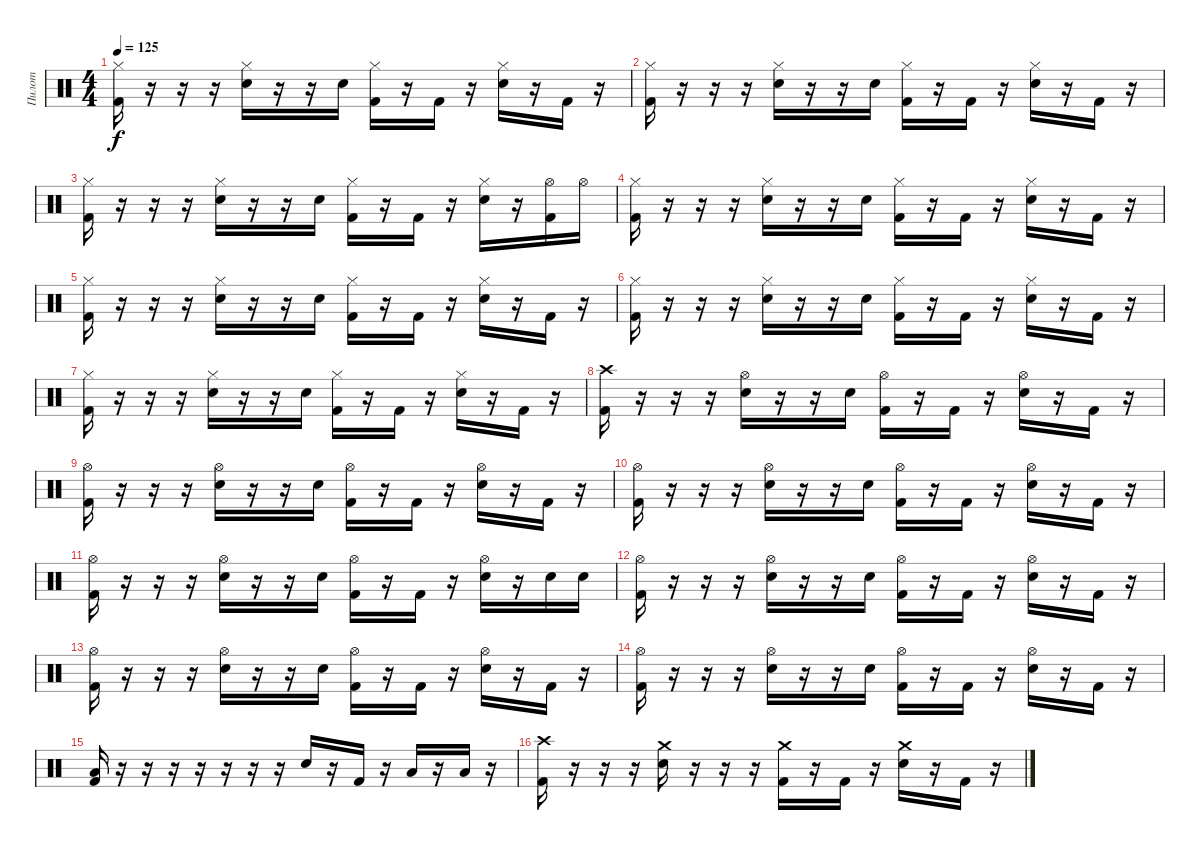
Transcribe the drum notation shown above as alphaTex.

\track ("Пилот" "Пилот") {instrument percussion}
\staff {score}
\articulation defaults
\ts (4 4)
\tempo 125
\clef neutral
\ks c
("Hi-Hat (closed)" "Kick (hit) 2").16{dy f} r.16 r.16 r.16 ("Hi-Hat (closed)" "Electric Snare (hit)").16 r.16 r.16 "Electric Snare (hit)".16 ("Hi-Hat (closed)" "Kick (hit) 2").16 r.16 "Kick (hit) 2".16 r.16 ("Hi-Hat (closed)" "Electric Snare (hit)").16 r.16 "Kick (hit) 2".16 r.16 |
("Hi-Hat (closed)" "Kick (hit) 2").16 r.16 r.16 r.16 ("Hi-Hat (closed)" "Electric Snare (hit)").16 r.16 r.16 "Electric Snare (hit)".16 ("Hi-Hat (closed)" "Kick (hit) 2").16 r.16 "Kick (hit) 2".16 r.16 ("Hi-Hat (closed)" "Electric Snare (hit)").16 r.16 "Kick (hit) 2".16 r.16 |
("Hi-Hat (closed)" "Kick (hit) 2").16 r.16 r.16 r.16 ("Hi-Hat (closed)" "Electric Snare (hit)").16 r.16 r.16 "Electric Snare (hit)".16 ("Hi-Hat (closed)" "Kick (hit) 2").16 r.16 "Kick (hit) 2".16 r.16 ("Hi-Hat (closed)" "Electric Snare (hit)").16 r.16 ("Hi-Hat (open)" "Kick (hit) 2").16 "Hi-Hat (open)".16 |
("Hi-Hat (closed)" "Kick (hit) 2").16 r.16 r.16 r.16 ("Hi-Hat (closed)" "Electric Snare (hit)").16 r.16 r.16 "Electric Snare (hit)".16 ("Hi-Hat (closed)" "Kick (hit) 2").16 r.16 "Kick (hit) 2".16 r.16 ("Hi-Hat (closed)" "Electric Snare (hit)").16 r.16 "Kick (hit) 2".16 r.16 |
("Hi-Hat (closed)" "Kick (hit) 2").16 r.16 r.16 r.16 ("Hi-Hat (closed)" "Electric Snare (hit)").16 r.16 r.16 "Electric Snare (hit)".16 ("Hi-Hat (closed)" "Kick (hit) 2").16 r.16 "Kick (hit) 2".16 r.16 ("Hi-Hat (closed)" "Electric Snare (hit)").16 r.16 "Kick (hit) 2".16 r.16 |
("Hi-Hat (closed)" "Kick (hit) 2").16 r.16 r.16 r.16 ("Hi-Hat (closed)" "Electric Snare (hit)").16 r.16 r.16 "Electric Snare (hit)".16 ("Hi-Hat (closed)" "Kick (hit) 2").16 r.16 "Kick (hit) 2".16 r.16 ("Hi-Hat (closed)" "Electric Snare (hit)").16 r.16 "Kick (hit) 2".16 r.16 |
("Hi-Hat (closed)" "Kick (hit) 2").16 r.16 r.16 r.16 ("Hi-Hat (closed)" "Electric Snare (hit)").16 r.16 r.16 "Electric Snare (hit)".16 ("Hi-Hat (closed)" "Kick (hit) 2").16 r.16 "Kick (hit) 2".16 r.16 ("Hi-Hat (closed)" "Electric Snare (hit)").16 r.16 "Kick (hit) 2".16 r.16 |
("Crash high (hit)" "Kick (hit) 2").16 r.16 r.16 r.16 ("Hi-Hat (open)" "Electric Snare (hit)").16 r.16 r.16 "Electric Snare (hit)".16 ("Hi-Hat (open)" "Kick (hit) 2").16 r.16 "Kick (hit) 2".16 r.16 ("Hi-Hat (open)" "Electric Snare (hit)").16 r.16 "Kick (hit) 2".16 r.16 |
("Hi-Hat (open)" "Kick (hit) 2").16 r.16 r.16 r.16 ("Hi-Hat (open)" "Electric Snare (hit)").16 r.16 r.16 "Electric Snare (hit)".16 ("Hi-Hat (open)" "Kick (hit) 2").16 r.16 "Kick (hit) 2".16 r.16 ("Hi-Hat (open)" "Electric Snare (hit)").16 r.16 "Kick (hit) 2".16 r.16 |
("Hi-Hat (open)" "Kick (hit) 2").16 r.16 r.16 r.16 ("Hi-Hat (open)" "Electric Snare (hit)").16 r.16 r.16 "Electric Snare (hit)".16 ("Hi-Hat (open)" "Kick (hit) 2").16 r.16 "Kick (hit) 2".16 r.16 ("Hi-Hat (open)" "Electric Snare (hit)").16 r.16 "Kick (hit) 2".16 r.16 |
("Hi-Hat (open)" "Kick (hit) 2").16 r.16 r.16 r.16 ("Hi-Hat (open)" "Electric Snare (hit)").16 r.16 r.16 "Electric Snare (hit)".16 ("Hi-Hat (open)" "Kick (hit) 2").16 r.16 "Kick (hit) 2".16 r.16 ("Hi-Hat (open)" "Electric Snare (hit)").16 r.16 "Electric Snare (hit)".16 "Electric Snare (hit)".16 |
("Hi-Hat (open)" "Kick (hit) 2").16 r.16 r.16 r.16 ("Hi-Hat (open)" "Electric Snare (hit)").16 r.16 r.16 "Electric Snare (hit)".16 ("Hi-Hat (open)" "Kick (hit) 2").16 r.16 "Kick (hit) 2".16 r.16 ("Hi-Hat (open)" "Electric Snare (hit)").16 r.16 "Kick (hit) 2".16 r.16 |
("Hi-Hat (open)" "Kick (hit) 2").16 r.16 r.16 r.16 ("Hi-Hat (open)" "Electric Snare (hit)").16 r.16 r.16 "Electric Snare (hit)".16 ("Hi-Hat (open)" "Kick (hit) 2").16 r.16 "Kick (hit) 2".16 r.16 ("Hi-Hat (open)" "Electric Snare (hit)").16 r.16 "Kick (hit) 2".16 r.16 |
("Hi-Hat (open)" "Kick (hit) 2").16 r.16 r.16 r.16 ("Hi-Hat (open)" "Electric Snare (hit)").16 r.16 r.16 "Electric Snare (hit)".16 ("Hi-Hat (open)" "Kick (hit) 2").16 r.16 "Kick (hit) 2".16 r.16 ("Hi-Hat (open)" "Electric Snare (hit)").16 r.16 "Kick (hit) 2".16 r.16 |
("Low Floor Tom (hit)" "Kick (hit) 2").16 r.16 r.16 r.16 r.16 r.16 r.16 r.16 "Electric Snare (hit)".16 r.16 "Kick (hit) 2".16 r.16 "Low Tom (hit)".16 r.16 "Low Floor Tom (hit)".16 r.16 |
("Crash high (hit)" "Kick (hit) 2").16 r.16 r.16 r.16 ("Crash medium (hit)" "Electric Snare (hit)").16 r.16 r.16 r.16 ("Crash medium (hit)" "Kick (hit) 2").16 r.16 "Kick (hit) 2".16 r.16 ("Crash medium (hit)" "Electric Snare (hit)").16 r.16 "Kick (hit) 2".16 r.16
